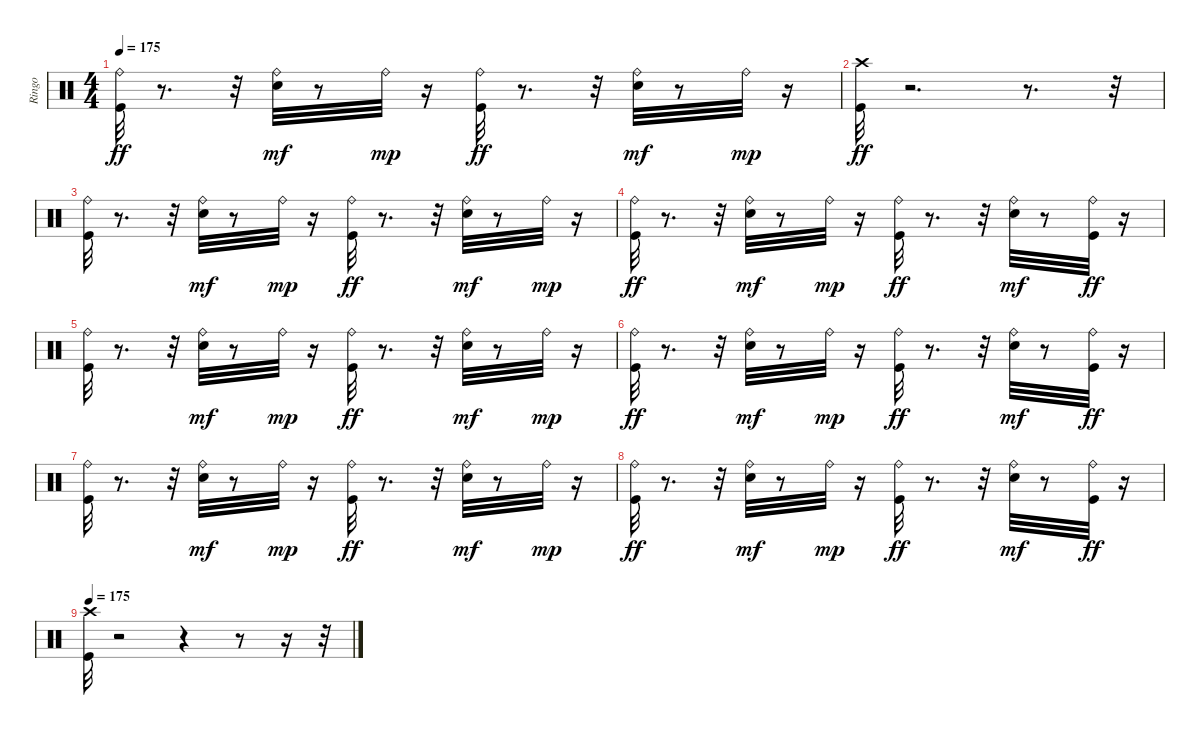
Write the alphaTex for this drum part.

\track ("Ringo" "Ringo") {instrument percussion}
\staff {score}
\articulation defaults
\ts (4 4)
\tempo 175
\clef neutral
\ks c
("Ride (bell)" "Kick (hit)").32{dy ff} r.8{d} r.32 ("Ride (bell)" "Snare (hit) 2").32{dy mf} r.8 "Ride (bell)".32{dy mp} r.16 ("Ride (bell)" "Kick (hit)").32{dy ff} r.8{d} r.32 ("Ride (bell)" "Snare (hit) 2").32{dy mf} r.8 "Ride (bell)".32{dy mp} r.16 |
("Kick (hit)" "Crash high (hit)").32{dy ff} r.2{d} r.8{d} r.32 |
("Ride (bell)" "Kick (hit)").32 r.8{d} r.32 ("Ride (bell)" "Snare (hit) 2").32{dy mf} r.8 "Ride (bell)".32{dy mp} r.16 ("Ride (bell)" "Kick (hit)").32{dy ff} r.8{d} r.32 ("Ride (bell)" "Snare (hit) 2").32{dy mf} r.8 "Ride (bell)".32{dy mp} r.16 |
("Ride (bell)" "Kick (hit)").32{dy ff} r.8{d} r.32 ("Ride (bell)" "Snare (hit) 2").32{dy mf} r.8 "Ride (bell)".32{dy mp} r.16 ("Ride (bell)" "Kick (hit)").32{dy ff} r.8{d} r.32 ("Ride (bell)" "Snare (hit) 2").32{dy mf} r.8 ("Ride (bell)" "Kick (hit)").32{dy ff} r.16 |
("Ride (bell)" "Kick (hit)").32 r.8{d} r.32 ("Ride (bell)" "Snare (hit) 2").32{dy mf} r.8 "Ride (bell)".32{dy mp} r.16 ("Ride (bell)" "Kick (hit)").32{dy ff} r.8{d} r.32 ("Ride (bell)" "Snare (hit) 2").32{dy mf} r.8 "Ride (bell)".32{dy mp} r.16 |
("Ride (bell)" "Kick (hit)").32{dy ff} r.8{d} r.32 ("Ride (bell)" "Snare (hit) 2").32{dy mf} r.8 "Ride (bell)".32{dy mp} r.16 ("Ride (bell)" "Kick (hit)").32{dy ff} r.8{d} r.32 ("Ride (bell)" "Snare (hit) 2").32{dy mf} r.8 ("Ride (bell)" "Kick (hit)").32{dy ff} r.16 |
("Ride (bell)" "Kick (hit)").32 r.8{d} r.32 ("Ride (bell)" "Snare (hit) 2").32{dy mf} r.8 "Ride (bell)".32{dy mp} r.16 ("Ride (bell)" "Kick (hit)").32{dy ff} r.8{d} r.32 ("Ride (bell)" "Snare (hit) 2").32{dy mf} r.8 "Ride (bell)".32{dy mp} r.16 |
("Ride (bell)" "Kick (hit)").32{dy ff} r.8{d} r.32 ("Ride (bell)" "Snare (hit) 2").32{dy mf} r.8 "Ride (bell)".32{dy mp} r.16 ("Ride (bell)" "Kick (hit)").32{dy ff} r.8{d} r.32 ("Ride (bell)" "Snare (hit) 2").32{dy mf} r.8 ("Ride (bell)" "Kick (hit)").32{dy ff} r.16 |
\tempo 175
("Kick (hit)" "Crash high (hit)").32 r.2 r.4 r.8 r.16 r.32
